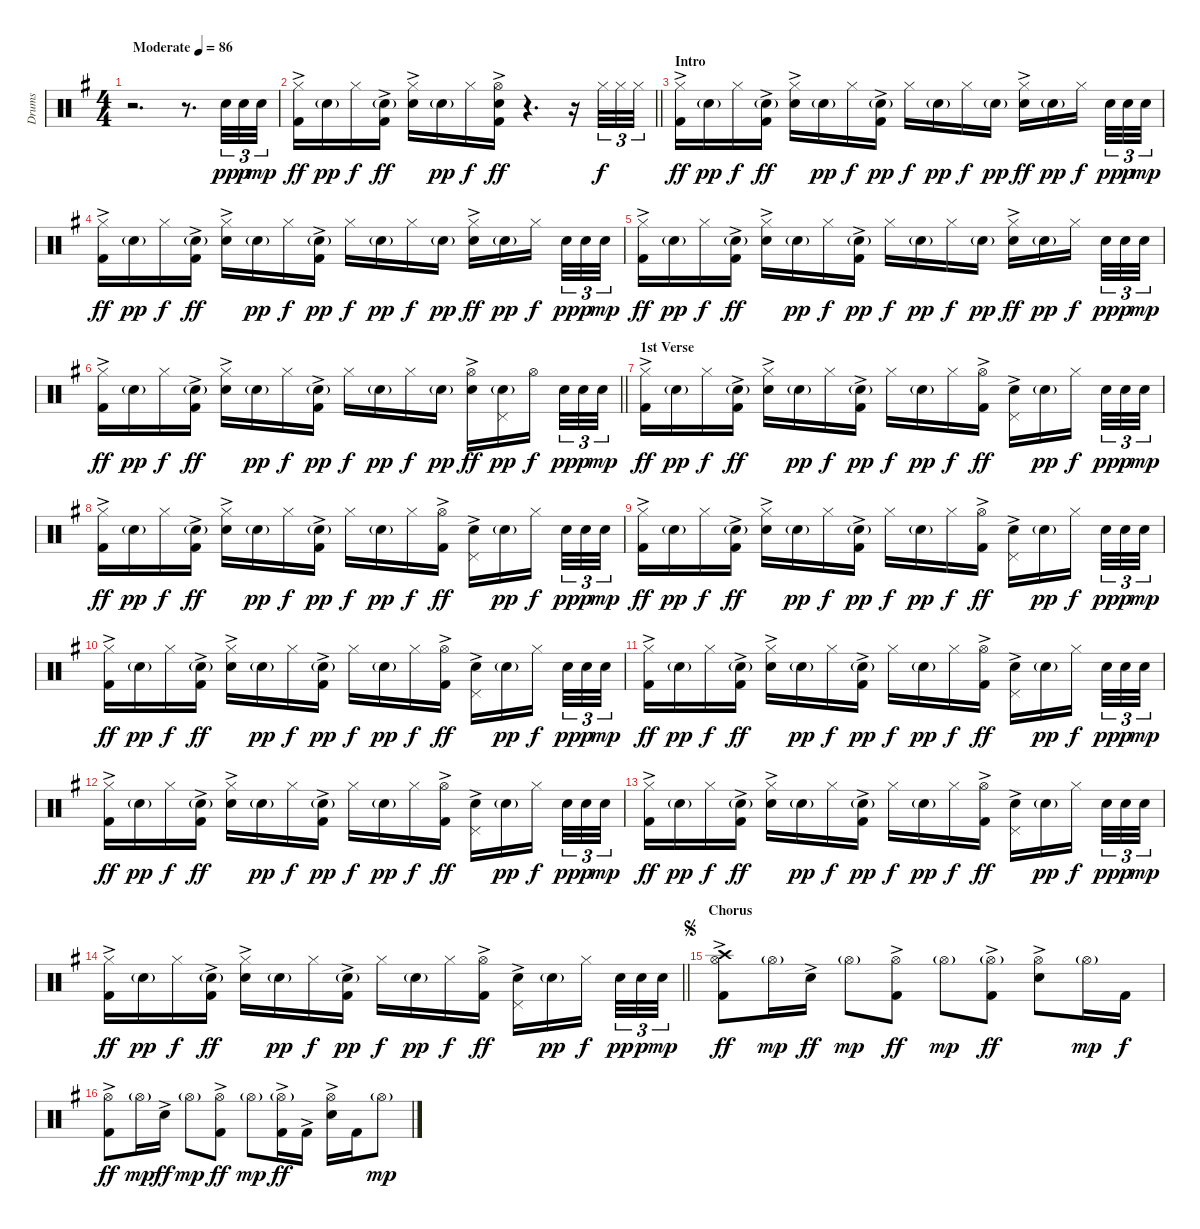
\track ("Drums" "Drums") {instrument percussion}
\staff {score}
\articulation defaults
\ts (4 4)
\tempo (86 "Moderate")
\clef neutral
\ks g
r.2{d dy pp} r.8{d} "Snare (hit) 2".32{tu (3 2)} "Snare (hit) 2".32{tu (3 2) dy p} "Snare (hit) 2".32{tu (3 2) dy mp} |
\barLineRight lightlight
("Hi-Hat (closed)" "Kick (hit) 2"{ac}).16{dy ff} "Snare (hit) 2"{g}.16{dy pp} "Hi-Hat (closed)".16{dy f} ("Snare (hit) 2"{g} "Kick (hit) 2"{ac}).16{dy ff} ("Hi-Hat (closed)" "Snare (hit) 2"{ac}).16 "Snare (hit) 2"{g}.16{dy pp} "Hi-Hat (closed)".16{dy f} ("Hi-Hat (open)" "Snare (hit) 2"{ac} "Kick (hit) 2"{ac}).16{dy ff} r.4{d} r.16 "Hi-Hat (closed)".32{tu (3 2) dy f} "Hi-Hat (closed)".32{tu (3 2)} "Hi-Hat (closed)".32{tu (3 2)} |
\section ("" "Intro")
("Hi-Hat (closed)" "Kick (hit) 2"{ac}).16{dy ff} "Snare (hit) 2"{g}.16{dy pp} "Hi-Hat (closed)".16{dy f} ("Snare (hit) 2"{g} "Kick (hit) 2"{ac}).16{dy ff} ("Hi-Hat (closed)" "Snare (hit) 2"{ac}).16 "Snare (hit) 2"{g}.16{dy pp} "Hi-Hat (closed)".16{dy f} ("Snare (hit) 2"{g} "Kick (hit) 2"{ac}).16{dy pp} "Hi-Hat (closed)".16{dy f} "Snare (hit) 2"{g}.16{dy pp} "Hi-Hat (closed)".16{dy f} "Snare (hit) 2"{g}.16{dy pp} ("Hi-Hat (closed)" "Snare (hit) 2"{ac}).16{dy ff} "Snare (hit) 2"{g}.16{dy pp} "Hi-Hat (closed)".16{dy f beam splitsecondary} "Snare (hit) 2".32{tu (3 2) dy pp} "Snare (hit) 2".32{tu (3 2) dy p} "Snare (hit) 2".32{tu (3 2) dy mp} |
("Hi-Hat (closed)" "Kick (hit) 2"{ac}).16{dy ff} "Snare (hit) 2"{g}.16{dy pp} "Hi-Hat (closed)".16{dy f} ("Snare (hit) 2"{g} "Kick (hit) 2"{ac}).16{dy ff} ("Hi-Hat (closed)" "Snare (hit) 2"{ac}).16 "Snare (hit) 2"{g}.16{dy pp} "Hi-Hat (closed)".16{dy f} ("Snare (hit) 2"{g} "Kick (hit) 2"{ac}).16{dy pp} "Hi-Hat (closed)".16{dy f} "Snare (hit) 2"{g}.16{dy pp} "Hi-Hat (closed)".16{dy f} "Snare (hit) 2"{g}.16{dy pp} ("Hi-Hat (closed)" "Snare (hit) 2"{ac}).16{dy ff} "Snare (hit) 2"{g}.16{dy pp} "Hi-Hat (closed)".16{dy f beam splitsecondary} "Snare (hit) 2".32{tu (3 2) dy pp} "Snare (hit) 2".32{tu (3 2) dy p} "Snare (hit) 2".32{tu (3 2) dy mp} |
("Hi-Hat (closed)" "Kick (hit) 2"{ac}).16{dy ff} "Snare (hit) 2"{g}.16{dy pp} "Hi-Hat (closed)".16{dy f} ("Snare (hit) 2"{g} "Kick (hit) 2"{ac}).16{dy ff} ("Hi-Hat (closed)" "Snare (hit) 2"{ac}).16 "Snare (hit) 2"{g}.16{dy pp} "Hi-Hat (closed)".16{dy f} ("Snare (hit) 2"{g} "Kick (hit) 2"{ac}).16{dy pp} "Hi-Hat (closed)".16{dy f} "Snare (hit) 2"{g}.16{dy pp} "Hi-Hat (closed)".16{dy f} "Snare (hit) 2"{g}.16{dy pp} ("Hi-Hat (closed)" "Snare (hit) 2"{ac}).16{dy ff} "Snare (hit) 2"{g}.16{dy pp} "Hi-Hat (closed)".16{dy f beam splitsecondary} "Snare (hit) 2".32{tu (3 2) dy pp} "Snare (hit) 2".32{tu (3 2) dy p} "Snare (hit) 2".32{tu (3 2) dy mp} |
\barLineRight lightlight
("Hi-Hat (closed)" "Kick (hit) 2"{ac}).16{dy ff} "Snare (hit) 2"{g}.16{dy pp} "Hi-Hat (closed)".16{dy f} ("Snare (hit) 2"{g} "Kick (hit) 2"{ac}).16{dy ff} ("Hi-Hat (closed)" "Snare (hit) 2"{ac}).16 "Snare (hit) 2"{g}.16{dy pp} "Hi-Hat (closed)".16{dy f} ("Snare (hit) 2"{g} "Kick (hit) 2"{ac}).16{dy pp} "Hi-Hat (closed)".16{dy f} "Snare (hit) 2"{g}.16{dy pp} "Hi-Hat (closed)".16{dy f} "Snare (hit) 2"{g}.16{dy pp} ("Hi-Hat (open)" "Snare (hit) 2"{ac}).16{dy ff} ("Pedal Hi-Hat (hit)" "Snare (hit) 2"{g}).16{dy pp} "Hi-Hat (open)".16{dy f beam splitsecondary} "Snare (hit) 2".32{tu (3 2) dy pp} "Snare (hit) 2".32{tu (3 2) dy p} "Snare (hit) 2".32{tu (3 2) dy mp} |
\section ("" "1st Verse")
("Hi-Hat (closed)" "Kick (hit) 2"{ac}).16{dy ff} "Snare (hit) 2"{g}.16{dy pp} "Hi-Hat (closed)".16{dy f} ("Snare (hit) 2"{g} "Kick (hit) 2"{ac}).16{dy ff} ("Hi-Hat (closed)" "Snare (hit) 2"{ac}).16 "Snare (hit) 2"{g}.16{dy pp} "Hi-Hat (closed)".16{dy f} ("Snare (hit) 2"{g} "Kick (hit) 2"{ac}).16{dy pp} "Hi-Hat (closed)".16{dy f} "Snare (hit) 2"{g}.16{dy pp} "Hi-Hat (closed)".16{dy f} ("Hi-Hat (open)" "Kick (hit) 2"{ac}).16{dy ff} ("Pedal Hi-Hat (hit)" "Snare (hit) 2"{ac}).16 "Snare (hit) 2"{g}.16{dy pp} "Hi-Hat (closed)".16{dy f beam splitsecondary} "Snare (hit) 2".32{tu (3 2) dy pp} "Snare (hit) 2".32{tu (3 2) dy p} "Snare (hit) 2".32{tu (3 2) dy mp} |
("Hi-Hat (closed)" "Kick (hit) 2"{ac}).16{dy ff} "Snare (hit) 2"{g}.16{dy pp} "Hi-Hat (closed)".16{dy f} ("Snare (hit) 2"{g} "Kick (hit) 2"{ac}).16{dy ff} ("Hi-Hat (closed)" "Snare (hit) 2"{ac}).16 "Snare (hit) 2"{g}.16{dy pp} "Hi-Hat (closed)".16{dy f} ("Snare (hit) 2"{g} "Kick (hit) 2"{ac}).16{dy pp} "Hi-Hat (closed)".16{dy f} "Snare (hit) 2"{g}.16{dy pp} "Hi-Hat (closed)".16{dy f} ("Hi-Hat (open)" "Kick (hit) 2"{ac}).16{dy ff} ("Pedal Hi-Hat (hit)" "Snare (hit) 2"{ac}).16 "Snare (hit) 2"{g}.16{dy pp} "Hi-Hat (closed)".16{dy f beam splitsecondary} "Snare (hit) 2".32{tu (3 2) dy pp} "Snare (hit) 2".32{tu (3 2) dy p} "Snare (hit) 2".32{tu (3 2) dy mp} |
("Hi-Hat (closed)" "Kick (hit) 2"{ac}).16{dy ff} "Snare (hit) 2"{g}.16{dy pp} "Hi-Hat (closed)".16{dy f} ("Snare (hit) 2"{g} "Kick (hit) 2"{ac}).16{dy ff} ("Hi-Hat (closed)" "Snare (hit) 2"{ac}).16 "Snare (hit) 2"{g}.16{dy pp} "Hi-Hat (closed)".16{dy f} ("Snare (hit) 2"{g} "Kick (hit) 2"{ac}).16{dy pp} "Hi-Hat (closed)".16{dy f} "Snare (hit) 2"{g}.16{dy pp} "Hi-Hat (closed)".16{dy f} ("Hi-Hat (open)" "Kick (hit) 2"{ac}).16{dy ff} ("Pedal Hi-Hat (hit)" "Snare (hit) 2"{ac}).16 "Snare (hit) 2"{g}.16{dy pp} "Hi-Hat (closed)".16{dy f beam splitsecondary} "Snare (hit) 2".32{tu (3 2) dy pp} "Snare (hit) 2".32{tu (3 2) dy p} "Snare (hit) 2".32{tu (3 2) dy mp} |
("Hi-Hat (closed)" "Kick (hit) 2"{ac}).16{dy ff} "Snare (hit) 2"{g}.16{dy pp} "Hi-Hat (closed)".16{dy f} ("Snare (hit) 2"{g} "Kick (hit) 2"{ac}).16{dy ff} ("Hi-Hat (closed)" "Snare (hit) 2"{ac}).16 "Snare (hit) 2"{g}.16{dy pp} "Hi-Hat (closed)".16{dy f} ("Snare (hit) 2"{g} "Kick (hit) 2"{ac}).16{dy pp} "Hi-Hat (closed)".16{dy f} "Snare (hit) 2"{g}.16{dy pp} "Hi-Hat (closed)".16{dy f} ("Hi-Hat (open)" "Kick (hit) 2"{ac}).16{dy ff} ("Pedal Hi-Hat (hit)" "Snare (hit) 2"{ac}).16 "Snare (hit) 2"{g}.16{dy pp} "Hi-Hat (closed)".16{dy f beam splitsecondary} "Snare (hit) 2".32{tu (3 2) dy pp} "Snare (hit) 2".32{tu (3 2) dy p} "Snare (hit) 2".32{tu (3 2) dy mp} |
("Hi-Hat (closed)" "Kick (hit) 2"{ac}).16{dy ff} "Snare (hit) 2"{g}.16{dy pp} "Hi-Hat (closed)".16{dy f} ("Snare (hit) 2"{g} "Kick (hit) 2"{ac}).16{dy ff} ("Hi-Hat (closed)" "Snare (hit) 2"{ac}).16 "Snare (hit) 2"{g}.16{dy pp} "Hi-Hat (closed)".16{dy f} ("Snare (hit) 2"{g} "Kick (hit) 2"{ac}).16{dy pp} "Hi-Hat (closed)".16{dy f} "Snare (hit) 2"{g}.16{dy pp} "Hi-Hat (closed)".16{dy f} ("Hi-Hat (open)" "Kick (hit) 2"{ac}).16{dy ff} ("Pedal Hi-Hat (hit)" "Snare (hit) 2"{ac}).16 "Snare (hit) 2"{g}.16{dy pp} "Hi-Hat (closed)".16{dy f beam splitsecondary} "Snare (hit) 2".32{tu (3 2) dy pp} "Snare (hit) 2".32{tu (3 2) dy p} "Snare (hit) 2".32{tu (3 2) dy mp} |
("Hi-Hat (closed)" "Kick (hit) 2"{ac}).16{dy ff} "Snare (hit) 2"{g}.16{dy pp} "Hi-Hat (closed)".16{dy f} ("Snare (hit) 2"{g} "Kick (hit) 2"{ac}).16{dy ff} ("Hi-Hat (closed)" "Snare (hit) 2"{ac}).16 "Snare (hit) 2"{g}.16{dy pp} "Hi-Hat (closed)".16{dy f} ("Snare (hit) 2"{g} "Kick (hit) 2"{ac}).16{dy pp} "Hi-Hat (closed)".16{dy f} "Snare (hit) 2"{g}.16{dy pp} "Hi-Hat (closed)".16{dy f} ("Hi-Hat (open)" "Kick (hit) 2"{ac}).16{dy ff} ("Pedal Hi-Hat (hit)" "Snare (hit) 2"{ac}).16 "Snare (hit) 2"{g}.16{dy pp} "Hi-Hat (closed)".16{dy f beam splitsecondary} "Snare (hit) 2".32{tu (3 2) dy pp} "Snare (hit) 2".32{tu (3 2) dy p} "Snare (hit) 2".32{tu (3 2) dy mp} |
("Hi-Hat (closed)" "Kick (hit) 2"{ac}).16{dy ff} "Snare (hit) 2"{g}.16{dy pp} "Hi-Hat (closed)".16{dy f} ("Snare (hit) 2"{g} "Kick (hit) 2"{ac}).16{dy ff} ("Hi-Hat (closed)" "Snare (hit) 2"{ac}).16 "Snare (hit) 2"{g}.16{dy pp} "Hi-Hat (closed)".16{dy f} ("Snare (hit) 2"{g} "Kick (hit) 2"{ac}).16{dy pp} "Hi-Hat (closed)".16{dy f} "Snare (hit) 2"{g}.16{dy pp} "Hi-Hat (closed)".16{dy f} ("Hi-Hat (open)" "Kick (hit) 2"{ac}).16{dy ff} ("Pedal Hi-Hat (hit)" "Snare (hit) 2"{ac}).16 "Snare (hit) 2"{g}.16{dy pp} "Hi-Hat (closed)".16{dy f beam splitsecondary} "Snare (hit) 2".32{tu (3 2) dy pp} "Snare (hit) 2".32{tu (3 2) dy p} "Snare (hit) 2".32{tu (3 2) dy mp} |
\barLineRight lightlight
("Hi-Hat (closed)" "Kick (hit) 2"{ac}).16{dy ff} "Snare (hit) 2"{g}.16{dy pp} "Hi-Hat (closed)".16{dy f} ("Snare (hit) 2"{g} "Kick (hit) 2"{ac}).16{dy ff} ("Hi-Hat (closed)" "Snare (hit) 2"{ac}).16 "Snare (hit) 2"{g}.16{dy pp} "Hi-Hat (closed)".16{dy f} ("Snare (hit) 2"{g} "Kick (hit) 2"{ac}).16{dy pp} "Hi-Hat (closed)".16{dy f} "Snare (hit) 2"{g}.16{dy pp} "Hi-Hat (closed)".16{dy f} ("Hi-Hat (open)" "Kick (hit) 2"{ac}).16{dy ff} ("Pedal Hi-Hat (hit)" "Snare (hit) 2"{ac}).16 "Snare (hit) 2"{g}.16{dy pp} "Hi-Hat (closed)".16{dy f beam splitsecondary} "Snare (hit) 2".32{tu (3 2) dy pp} "Snare (hit) 2".32{tu (3 2) dy p} "Snare (hit) 2".32{tu (3 2) dy mp} |
\section ("" "Chorus")
\jump segno
("Hi-Hat (open)" "Crash high (hit)" "Kick (hit) 2"{ac}).8{dy ff} "Hi-Hat (open)"{g}.16{dy mp} "Snare (hit) 2"{ac}.16{dy ff} "Hi-Hat (open)"{g}.8{dy mp} ("Hi-Hat (open)" "Kick (hit) 2"{ac}).8{dy ff} "Hi-Hat (open)"{g}.8{dy mp} ("Hi-Hat (open)"{g} "Kick (hit) 2"{ac}).8{dy ff} ("Hi-Hat (open)" "Snare (hit) 2"{ac}).8 "Hi-Hat (open)"{g}.16{dy mp} "Kick (hit) 2".16{dy f} |
("Hi-Hat (open)" "Kick (hit) 2"{ac}).8{dy ff} "Hi-Hat (open)"{g}.16{dy mp} "Snare (hit) 2"{ac}.16{dy ff} "Hi-Hat (open)"{g}.8{dy mp} ("Hi-Hat (open)" "Kick (hit) 2"{ac}).8{dy ff} "Hi-Hat (open)"{g}.8{dy mp} ("Hi-Hat (open)"{g} "Kick (hit) 2"{ac}).16{dy ff} "Kick (hit) 2"{ac}.16 ("Hi-Hat (open)" "Snare (hit) 2"{ac}).16 "Kick (hit) 2".16 "Hi-Hat (open)"{g}.8{dy mp}
